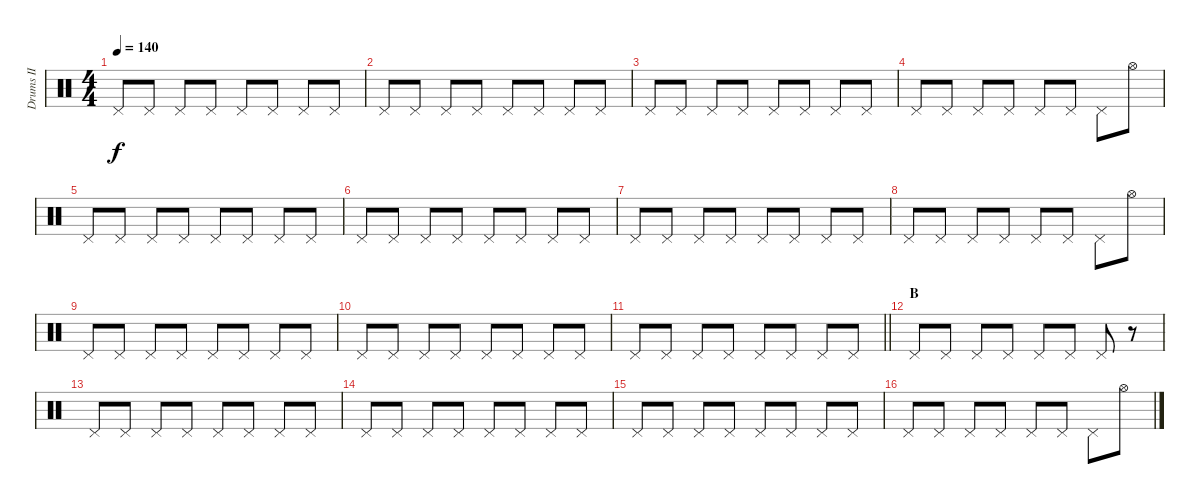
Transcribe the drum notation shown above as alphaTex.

\track ("Drums II" "Drums II") {instrument percussion}
\staff {score}
\articulation defaults
\ts (4 4)
\tempo 140
\clef neutral
\ks c "Pedal Hi-Hat (hit)".8{dy f} "Pedal Hi-Hat (hit)".8 "Pedal Hi-Hat (hit)".8 "Pedal Hi-Hat (hit)".8 "Pedal Hi-Hat (hit)".8 "Pedal Hi-Hat (hit)".8 "Pedal Hi-Hat (hit)".8 "Pedal Hi-Hat (hit)".8
|
"Pedal Hi-Hat (hit)".8 "Pedal Hi-Hat (hit)".8 "Pedal Hi-Hat (hit)".8 "Pedal Hi-Hat (hit)".8 "Pedal Hi-Hat (hit)".8 "Pedal Hi-Hat (hit)".8 "Pedal Hi-Hat (hit)".8 "Pedal Hi-Hat (hit)".8 |
"Pedal Hi-Hat (hit)".8 "Pedal Hi-Hat (hit)".8 "Pedal Hi-Hat (hit)".8 "Pedal Hi-Hat (hit)".8 "Pedal Hi-Hat (hit)".8 "Pedal Hi-Hat (hit)".8 "Pedal Hi-Hat (hit)".8 "Pedal Hi-Hat (hit)".8 |
"Pedal Hi-Hat (hit)".8 "Pedal Hi-Hat (hit)".8 "Pedal Hi-Hat (hit)".8 "Pedal Hi-Hat (hit)".8 "Pedal Hi-Hat (hit)".8 "Pedal Hi-Hat (hit)".8 "Pedal Hi-Hat (hit)".8 "Hi-Hat (open)".8 |
"Pedal Hi-Hat (hit)".8 "Pedal Hi-Hat (hit)".8 "Pedal Hi-Hat (hit)".8 "Pedal Hi-Hat (hit)".8 "Pedal Hi-Hat (hit)".8 "Pedal Hi-Hat (hit)".8 "Pedal Hi-Hat (hit)".8 "Pedal Hi-Hat (hit)".8 |
"Pedal Hi-Hat (hit)".8 "Pedal Hi-Hat (hit)".8 "Pedal Hi-Hat (hit)".8 "Pedal Hi-Hat (hit)".8 "Pedal Hi-Hat (hit)".8 "Pedal Hi-Hat (hit)".8 "Pedal Hi-Hat (hit)".8 "Pedal Hi-Hat (hit)".8 |
"Pedal Hi-Hat (hit)".8 "Pedal Hi-Hat (hit)".8 "Pedal Hi-Hat (hit)".8 "Pedal Hi-Hat (hit)".8 "Pedal Hi-Hat (hit)".8 "Pedal Hi-Hat (hit)".8 "Pedal Hi-Hat (hit)".8 "Pedal Hi-Hat (hit)".8 |
"Pedal Hi-Hat (hit)".8 "Pedal Hi-Hat (hit)".8 "Pedal Hi-Hat (hit)".8 "Pedal Hi-Hat (hit)".8 "Pedal Hi-Hat (hit)".8 "Pedal Hi-Hat (hit)".8 "Pedal Hi-Hat (hit)".8 "Hi-Hat (open)".8 |
"Pedal Hi-Hat (hit)".8 "Pedal Hi-Hat (hit)".8 "Pedal Hi-Hat (hit)".8 "Pedal Hi-Hat (hit)".8 "Pedal Hi-Hat (hit)".8 "Pedal Hi-Hat (hit)".8 "Pedal Hi-Hat (hit)".8 "Pedal Hi-Hat (hit)".8 |
"Pedal Hi-Hat (hit)".8 "Pedal Hi-Hat (hit)".8 "Pedal Hi-Hat (hit)".8 "Pedal Hi-Hat (hit)".8 "Pedal Hi-Hat (hit)".8 "Pedal Hi-Hat (hit)".8 "Pedal Hi-Hat (hit)".8 "Pedal Hi-Hat (hit)".8 |
\barLineRight lightlight "Pedal Hi-Hat (hit)".8 "Pedal Hi-Hat (hit)".8 "Pedal Hi-Hat (hit)".8 "Pedal Hi-Hat (hit)".8 "Pedal Hi-Hat (hit)".8 "Pedal Hi-Hat (hit)".8 "Pedal Hi-Hat (hit)".8 "Pedal Hi-Hat (hit)".8
|
\section ("" "B")
"Pedal Hi-Hat (hit)".8 "Pedal Hi-Hat (hit)".8 "Pedal Hi-Hat (hit)".8 "Pedal Hi-Hat (hit)".8 "Pedal Hi-Hat (hit)".8 "Pedal Hi-Hat (hit)".8 "Pedal Hi-Hat (hit)".8 r.8 |
"Pedal Hi-Hat (hit)".8 "Pedal Hi-Hat (hit)".8 "Pedal Hi-Hat (hit)".8 "Pedal Hi-Hat (hit)".8 "Pedal Hi-Hat (hit)".8 "Pedal Hi-Hat (hit)".8 "Pedal Hi-Hat (hit)".8 "Pedal Hi-Hat (hit)".8 |
"Pedal Hi-Hat (hit)".8 "Pedal Hi-Hat (hit)".8 "Pedal Hi-Hat (hit)".8 "Pedal Hi-Hat (hit)".8 "Pedal Hi-Hat (hit)".8 "Pedal Hi-Hat (hit)".8 "Pedal Hi-Hat (hit)".8 "Pedal Hi-Hat (hit)".8 |
"Pedal Hi-Hat (hit)".8 "Pedal Hi-Hat (hit)".8 "Pedal Hi-Hat (hit)".8 "Pedal Hi-Hat (hit)".8 "Pedal Hi-Hat (hit)".8 "Pedal Hi-Hat (hit)".8 "Pedal Hi-Hat (hit)".8 "Pedal Hi-Hat (hit)".8 |
"Pedal Hi-Hat (hit)".8 "Pedal Hi-Hat (hit)".8 "Pedal Hi-Hat (hit)".8 "Pedal Hi-Hat (hit)".8 "Pedal Hi-Hat (hit)".8 "Pedal Hi-Hat (hit)".8 "Pedal Hi-Hat (hit)".8 "Hi-Hat (open)".8
